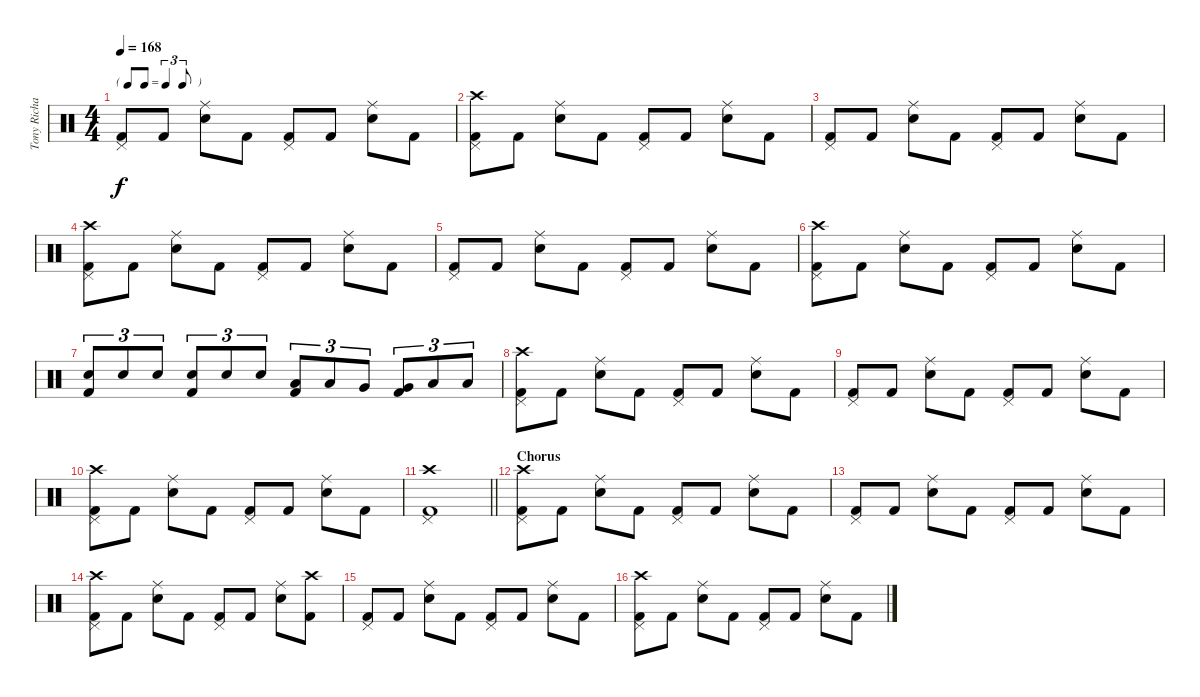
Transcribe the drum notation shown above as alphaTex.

\track ("Tony Richards (drums)" "Tony Richa") {instrument percussion}
\staff {score}
\articulation defaults
\ts (4 4)
\tf triplet8th
\tempo 168
\clef neutral
\ks c
("Pedal Hi-Hat (hit)" "Kick (hit) 2").8{dy f} "Kick (hit) 2".8 ("Ride (middle)" "Snare (hit) 2").8 "Kick (hit) 2".8 ("Pedal Hi-Hat (hit)" "Kick (hit) 2").8 "Kick (hit) 2".8 ("Ride (middle)" "Snare (hit) 2").8 "Kick (hit) 2".8 |
("Crash high (hit)" "Pedal Hi-Hat (hit)" "Kick (hit) 2").8 "Kick (hit) 2".8 ("Ride (middle)" "Snare (hit) 2").8 "Kick (hit) 2".8 ("Pedal Hi-Hat (hit)" "Kick (hit) 2").8 "Kick (hit) 2".8 ("Ride (middle)" "Snare (hit) 2").8 "Kick (hit) 2".8 |
("Pedal Hi-Hat (hit)" "Kick (hit) 2").8 "Kick (hit) 2".8 ("Ride (middle)" "Snare (hit) 2").8 "Kick (hit) 2".8 ("Pedal Hi-Hat (hit)" "Kick (hit) 2").8 "Kick (hit) 2".8 ("Ride (middle)" "Snare (hit) 2").8 "Kick (hit) 2".8 |
("Crash high (hit)" "Pedal Hi-Hat (hit)" "Kick (hit) 2").8 "Kick (hit) 2".8 ("Ride (middle)" "Snare (hit) 2").8 "Kick (hit) 2".8 ("Pedal Hi-Hat (hit)" "Kick (hit) 2").8 "Kick (hit) 2".8 ("Ride (middle)" "Snare (hit) 2").8 "Kick (hit) 2".8 |
("Pedal Hi-Hat (hit)" "Kick (hit) 2").8 "Kick (hit) 2".8 ("Ride (middle)" "Snare (hit) 2").8 "Kick (hit) 2".8 ("Pedal Hi-Hat (hit)" "Kick (hit) 2").8 "Kick (hit) 2".8 ("Ride (middle)" "Snare (hit) 2").8 "Kick (hit) 2".8 |
("Crash high (hit)" "Pedal Hi-Hat (hit)" "Kick (hit) 2").8 "Kick (hit) 2".8 ("Ride (middle)" "Snare (hit) 2").8 "Kick (hit) 2".8 ("Pedal Hi-Hat (hit)" "Kick (hit) 2").8 "Kick (hit) 2".8 ("Ride (middle)" "Snare (hit) 2").8 "Kick (hit) 2".8 |
("Snare (hit) 2" "Kick (hit) 2").8{tu (3 2)} "Snare (hit) 2".8{tu (3 2)} "Snare (hit) 2".8{tu (3 2)} ("Snare (hit) 2" "Kick (hit) 2").8{tu (3 2)} "Snare (hit) 2".8{tu (3 2)} "Snare (hit) 2".8{tu (3 2)} ("Low Tom (hit)" "Kick (hit) 2").8{tu (3 2)} "Low Tom (hit)".8{tu (3 2)} "Very Low Tom (hit)".8{tu (3 2)} ("Very Low Tom (hit)" "Kick (hit) 2").8{tu (3 2)} "Low Floor Tom (hit)".8{tu (3 2)} "Low Floor Tom (hit)".8{tu (3 2)} |
("Crash high (hit)" "Pedal Hi-Hat (hit)" "Kick (hit) 2").8 "Kick (hit) 2".8 ("Ride (middle)" "Snare (hit) 2").8 "Kick (hit) 2".8 ("Pedal Hi-Hat (hit)" "Kick (hit) 2").8 "Kick (hit) 2".8 ("Ride (middle)" "Snare (hit) 2").8 "Kick (hit) 2".8 |
("Pedal Hi-Hat (hit)" "Kick (hit) 2").8 "Kick (hit) 2".8 ("Ride (middle)" "Snare (hit) 2").8 "Kick (hit) 2".8 ("Pedal Hi-Hat (hit)" "Kick (hit) 2").8 "Kick (hit) 2".8 ("Ride (middle)" "Snare (hit) 2").8 "Kick (hit) 2".8 |
("Crash high (hit)" "Pedal Hi-Hat (hit)" "Kick (hit) 2").8 "Kick (hit) 2".8 ("Ride (middle)" "Snare (hit) 2").8 "Kick (hit) 2".8 ("Pedal Hi-Hat (hit)" "Kick (hit) 2").8 "Kick (hit) 2".8 ("Ride (middle)" "Snare (hit) 2").8 "Kick (hit) 2".8 |
\barLineRight lightlight
("Crash high (hit)" "Pedal Hi-Hat (hit)" "Kick (hit) 2").1 |
\section ("" "Chorus")
("Crash high (hit)" "Pedal Hi-Hat (hit)" "Kick (hit) 2").8 "Kick (hit) 2".8 ("Ride (middle)" "Snare (hit) 2").8 "Kick (hit) 2".8 ("Pedal Hi-Hat (hit)" "Kick (hit) 2").8 "Kick (hit) 2".8 ("Ride (middle)" "Snare (hit) 2").8 "Kick (hit) 2".8 |
("Pedal Hi-Hat (hit)" "Kick (hit) 2").8 "Kick (hit) 2".8 ("Ride (middle)" "Snare (hit) 2").8 "Kick (hit) 2".8 ("Pedal Hi-Hat (hit)" "Kick (hit) 2").8 "Kick (hit) 2".8 ("Ride (middle)" "Snare (hit) 2").8 "Kick (hit) 2".8 |
("Crash high (hit)" "Pedal Hi-Hat (hit)" "Kick (hit) 2").8 "Kick (hit) 2".8 ("Ride (middle)" "Snare (hit) 2").8 "Kick (hit) 2".8 ("Pedal Hi-Hat (hit)" "Kick (hit) 2").8 "Kick (hit) 2".8 ("Ride (middle)" "Snare (hit) 2").8 ("Crash high (hit)" "Kick (hit) 2").8 |
("Pedal Hi-Hat (hit)" "Kick (hit) 2").8 "Kick (hit) 2".8 ("Ride (middle)" "Snare (hit) 2").8 "Kick (hit) 2".8 ("Pedal Hi-Hat (hit)" "Kick (hit) 2").8 "Kick (hit) 2".8 ("Ride (middle)" "Snare (hit) 2").8 "Kick (hit) 2".8 |
("Crash high (hit)" "Pedal Hi-Hat (hit)" "Kick (hit) 2").8 "Kick (hit) 2".8 ("Ride (middle)" "Snare (hit) 2").8 "Kick (hit) 2".8 ("Pedal Hi-Hat (hit)" "Kick (hit) 2").8 "Kick (hit) 2".8 ("Ride (middle)" "Snare (hit) 2").8 "Kick (hit) 2".8
